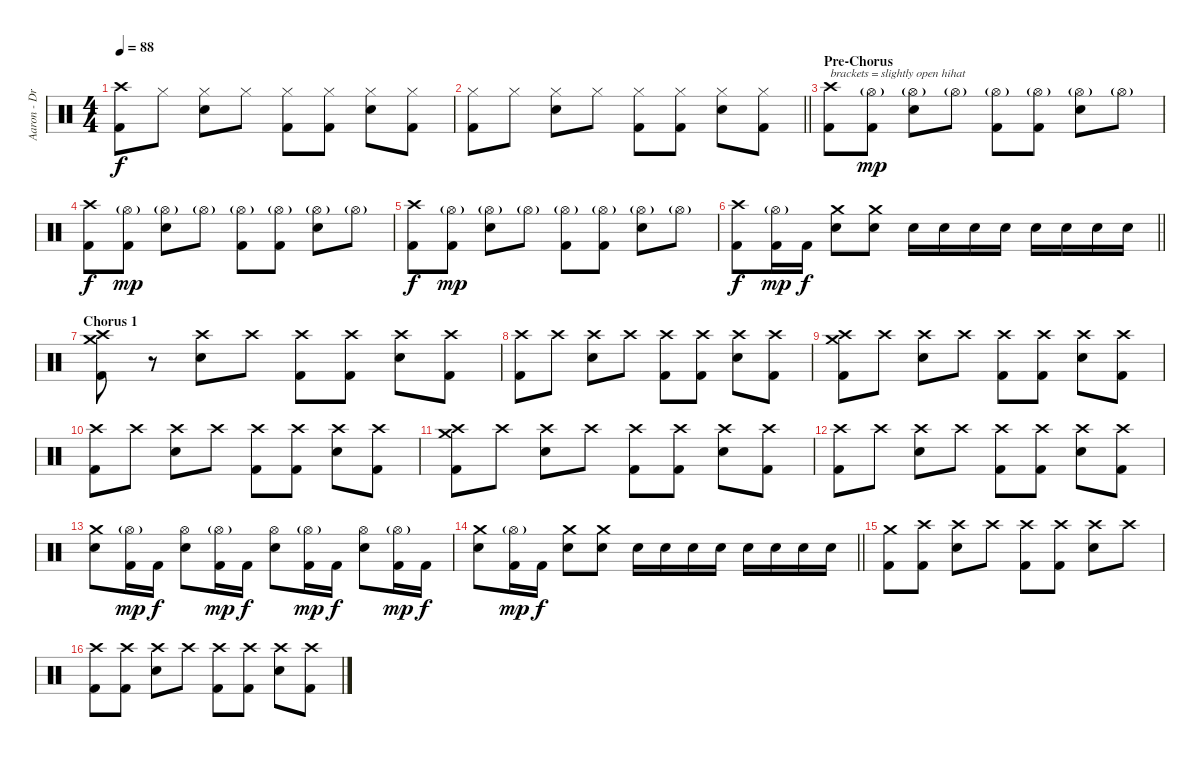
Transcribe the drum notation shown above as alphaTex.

\track ("Aaron - Drums" "Aaron - Dr") {instrument percussion}
\staff {score}
\articulation defaults
\ts (4 4)
\tempo 88
\clef neutral
\ks c
("Crash high (hit)" "Kick (hit) 2").8{dy f} "Hi-Hat (closed)".8 ("Hi-Hat (closed)" "Electric Snare (hit)").8 "Hi-Hat (closed)".8 ("Hi-Hat (closed)" "Kick (hit) 2").8 ("Hi-Hat (closed)" "Kick (hit) 2").8 ("Hi-Hat (closed)" "Electric Snare (hit)").8 ("Hi-Hat (closed)" "Kick (hit) 2").8 |
\barLineRight lightlight
("Hi-Hat (closed)" "Kick (hit) 2").8 "Hi-Hat (closed)".8 ("Hi-Hat (closed)" "Electric Snare (hit)").8 "Hi-Hat (closed)".8 ("Hi-Hat (closed)" "Kick (hit) 2").8 ("Hi-Hat (closed)" "Kick (hit) 2").8 ("Hi-Hat (closed)" "Electric Snare (hit)").8 ("Hi-Hat (closed)" "Kick (hit) 2").8 |
\section ("" "Pre-Chorus")
("Crash high (hit)" "Kick (hit) 2").8{txt "brackets = slightly open hihat"} ("Hi-Hat (open)"{g} "Kick (hit) 2").8{dy mp} ("Hi-Hat (open)"{g} "Electric Snare (hit)").8 "Hi-Hat (open)"{g}.8 ("Hi-Hat (open)"{g} "Kick (hit) 2").8 ("Hi-Hat (open)"{g} "Kick (hit) 2").8 ("Hi-Hat (open)"{g} "Electric Snare (hit)").8 "Hi-Hat (open)"{g}.8 |
("Crash high (hit)" "Kick (hit) 2").8{dy f} ("Hi-Hat (open)"{g} "Kick (hit) 2").8{dy mp} ("Hi-Hat (open)"{g} "Electric Snare (hit)").8 "Hi-Hat (open)"{g}.8 ("Hi-Hat (open)"{g} "Kick (hit) 2").8 ("Hi-Hat (open)"{g} "Kick (hit) 2").8 ("Hi-Hat (open)"{g} "Electric Snare (hit)").8 "Hi-Hat (open)"{g}.8 |
("Crash high (hit)" "Kick (hit) 2").8{dy f} ("Hi-Hat (open)"{g} "Kick (hit) 2").8{dy mp} ("Hi-Hat (open)"{g} "Electric Snare (hit)").8 "Hi-Hat (open)"{g}.8 ("Hi-Hat (open)"{g} "Kick (hit) 2").8 ("Hi-Hat (open)"{g} "Kick (hit) 2").8 ("Hi-Hat (open)"{g} "Electric Snare (hit)").8 "Hi-Hat (open)"{g}.8 |
\barLineRight lightlight
("Crash high (hit)" "Kick (hit) 2").8{dy f} ("Hi-Hat (open)"{g} "Kick (hit) 2").16{dy mp} "Kick (hit) 2".16{dy f} ("Crash medium (hit)" "Electric Snare (hit)").8 ("Crash medium (hit)" "Electric Snare (hit)").8 "Electric Snare (hit)".16 "Electric Snare (hit)".16 "Electric Snare (hit)".16 "Electric Snare (hit)".16 "Electric Snare (hit)".16 "Electric Snare (hit)".16 "Electric Snare (hit)".16 "Electric Snare (hit)".16 |
\section ("" "Chorus 1")
("Crash high (hit)" "Crash medium (hit)" "Kick (hit) 2").8 r.8 ("Crash high (hit)" "Electric Snare (hit)").8 "Crash high (hit)".8 ("Crash high (hit)" "Kick (hit) 2").8 ("Crash high (hit)" "Kick (hit) 2").8 ("Crash high (hit)" "Electric Snare (hit)").8 ("Crash high (hit)" "Kick (hit) 2").8 |
("Crash high (hit)" "Kick (hit) 2").8 "Crash high (hit)".8 ("Crash high (hit)" "Electric Snare (hit)").8 "Crash high (hit)".8 ("Crash high (hit)" "Kick (hit) 2").8 ("Crash high (hit)" "Kick (hit) 2").8 ("Crash high (hit)" "Electric Snare (hit)").8 ("Crash high (hit)" "Kick (hit) 2").8 |
("Crash high (hit)" "Crash medium (hit)" "Kick (hit) 2").8 "Crash high (hit)".8 ("Crash high (hit)" "Electric Snare (hit)").8 "Crash high (hit)".8 ("Crash high (hit)" "Kick (hit) 2").8 ("Crash high (hit)" "Kick (hit) 2").8 ("Crash high (hit)" "Electric Snare (hit)").8 ("Crash high (hit)" "Kick (hit) 2").8 |
("Crash high (hit)" "Kick (hit) 2").8 "Crash high (hit)".8 ("Crash high (hit)" "Electric Snare (hit)").8 "Crash high (hit)".8 ("Crash high (hit)" "Kick (hit) 2").8 ("Crash high (hit)" "Kick (hit) 2").8 ("Crash high (hit)" "Electric Snare (hit)").8 ("Crash high (hit)" "Kick (hit) 2").8 |
("Crash high (hit)" "Crash medium (hit)" "Kick (hit) 2").8 "Crash high (hit)".8 ("Crash high (hit)" "Electric Snare (hit)").8 "Crash high (hit)".8 ("Crash high (hit)" "Kick (hit) 2").8 ("Crash high (hit)" "Kick (hit) 2").8 ("Crash high (hit)" "Electric Snare (hit)").8 ("Crash high (hit)" "Kick (hit) 2").8 |
("Crash high (hit)" "Kick (hit) 2").8 "Crash high (hit)".8 ("Crash high (hit)" "Electric Snare (hit)").8 "Crash high (hit)".8 ("Crash high (hit)" "Kick (hit) 2").8 ("Crash high (hit)" "Kick (hit) 2").8 ("Crash high (hit)" "Electric Snare (hit)").8 ("Crash high (hit)" "Kick (hit) 2").8 |
("Crash medium (hit)" "Electric Snare (hit)").8 ("Hi-Hat (open)"{g} "Kick (hit) 2").16{dy mp} "Kick (hit) 2".16{dy f} ("Hi-Hat (open)" "Electric Snare (hit)").8 ("Hi-Hat (open)"{g} "Kick (hit) 2").16{dy mp} "Kick (hit) 2".16{dy f} ("Hi-Hat (open)" "Electric Snare (hit)").8 ("Hi-Hat (open)"{g} "Kick (hit) 2").16{dy mp} "Kick (hit) 2".16{dy f} ("Hi-Hat (open)" "Electric Snare (hit)").8 ("Hi-Hat (open)"{g} "Kick (hit) 2").16{dy mp} "Kick (hit) 2".16{dy f} |
\barLineRight lightlight
("Crash medium (hit)" "Electric Snare (hit)").8 ("Hi-Hat (open)"{g} "Kick (hit) 2").16{dy mp} "Kick (hit) 2".16{dy f} ("Crash medium (hit)" "Electric Snare (hit)").8 ("Crash medium (hit)" "Electric Snare (hit)").8 "Electric Snare (hit)".16 "Electric Snare (hit)".16 "Electric Snare (hit)".16 "Electric Snare (hit)".16 "Electric Snare (hit)".16 "Electric Snare (hit)".16 "Electric Snare (hit)".16 "Electric Snare (hit)".16 |
\section ("" "")
("Crash medium (hit)" "Kick (hit) 2").8 ("Crash high (hit)" "Kick (hit) 2").8 ("Crash high (hit)" "Electric Snare (hit)").8 "Crash high (hit)".8 ("Crash high (hit)" "Kick (hit) 2").8 ("Crash high (hit)" "Kick (hit) 2").8 ("Crash high (hit)" "Electric Snare (hit)").8 "Crash high (hit)".8 |
("Crash high (hit)" "Kick (hit) 2").8 ("Crash high (hit)" "Kick (hit) 2").8 ("Crash high (hit)" "Electric Snare (hit)").8 "Crash high (hit)".8 ("Crash high (hit)" "Kick (hit) 2").8 ("Crash high (hit)" "Kick (hit) 2").8 ("Crash high (hit)" "Electric Snare (hit)").8 ("Crash high (hit)" "Kick (hit) 2").8
